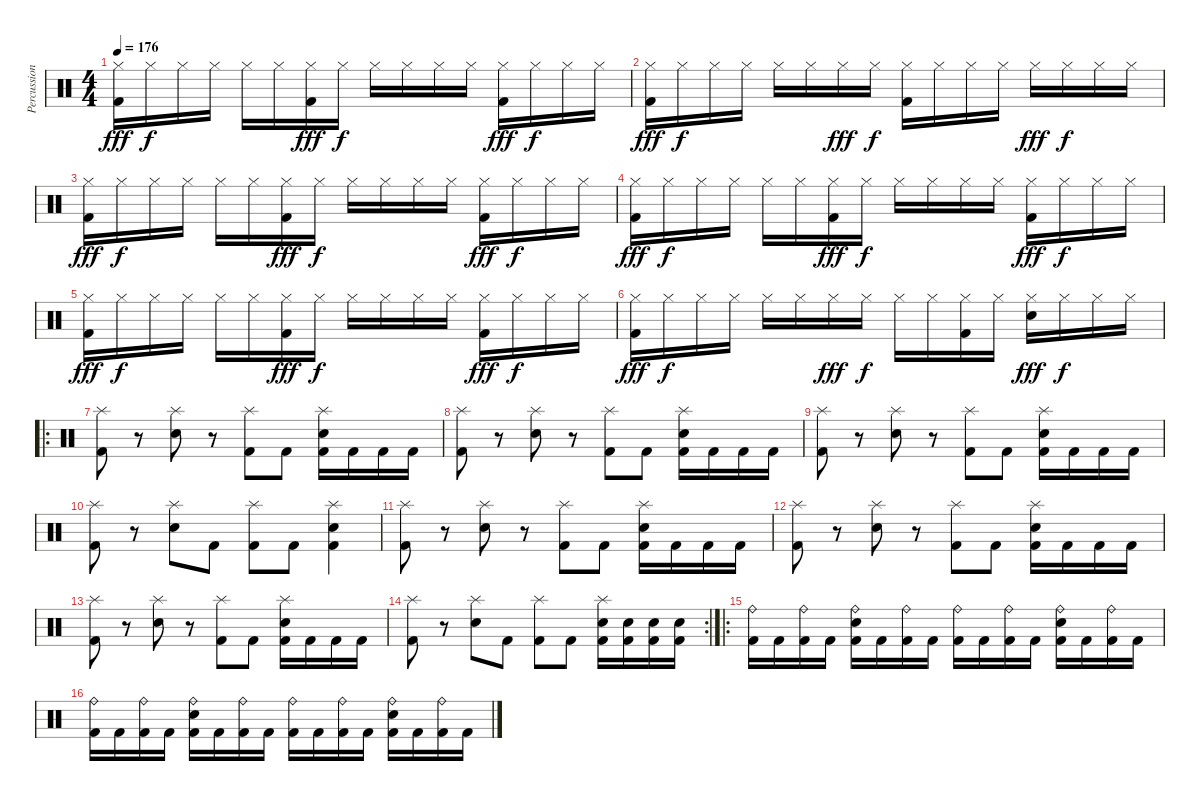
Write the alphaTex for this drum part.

\track ("Percussion" "Percussion") {instrument percussion}
\staff {score}
\articulation defaults
\ts (4 4)
\tempo 176
\clef neutral
\ks c
("Hi-Hat (closed)" "Kick (hit) 2").16{dy fff} "Hi-Hat (closed)".16{dy f} "Hi-Hat (closed)".16 "Hi-Hat (closed)".16 "Hi-Hat (closed)".16 "Hi-Hat (closed)".16 ("Hi-Hat (closed)" "Kick (hit) 2").16{dy fff} "Hi-Hat (closed)".16{dy f} "Hi-Hat (closed)".16 "Hi-Hat (closed)".16 "Hi-Hat (closed)".16 "Hi-Hat (closed)".16 ("Hi-Hat (closed)" "Kick (hit) 2").16{dy fff} "Hi-Hat (closed)".16{dy f} "Hi-Hat (closed)".16 "Hi-Hat (closed)".16 |
("Hi-Hat (closed)" "Kick (hit) 2").16{dy fff} "Hi-Hat (closed)".16{dy f} "Hi-Hat (closed)".16 "Hi-Hat (closed)".16 "Hi-Hat (closed)".16 "Hi-Hat (closed)".16 "Hi-Hat (closed)".16{dy fff} "Hi-Hat (closed)".16{dy f} ("Hi-Hat (closed)" "Kick (hit) 2").16 "Hi-Hat (closed)".16 "Hi-Hat (closed)".16 "Hi-Hat (closed)".16 "Hi-Hat (closed)".16{dy fff} "Hi-Hat (closed)".16{dy f} "Hi-Hat (closed)".16 "Hi-Hat (closed)".16 |
("Hi-Hat (closed)" "Kick (hit) 2").16{dy fff} "Hi-Hat (closed)".16{dy f} "Hi-Hat (closed)".16 "Hi-Hat (closed)".16 "Hi-Hat (closed)".16 "Hi-Hat (closed)".16 ("Hi-Hat (closed)" "Kick (hit) 2").16{dy fff} "Hi-Hat (closed)".16{dy f} "Hi-Hat (closed)".16 "Hi-Hat (closed)".16 "Hi-Hat (closed)".16 "Hi-Hat (closed)".16 ("Hi-Hat (closed)" "Kick (hit) 2").16{dy fff} "Hi-Hat (closed)".16{dy f} "Hi-Hat (closed)".16 "Hi-Hat (closed)".16 |
("Hi-Hat (closed)" "Kick (hit) 2").16{dy fff} "Hi-Hat (closed)".16{dy f} "Hi-Hat (closed)".16 "Hi-Hat (closed)".16 "Hi-Hat (closed)".16 "Hi-Hat (closed)".16 ("Hi-Hat (closed)" "Kick (hit) 2").16{dy fff} "Hi-Hat (closed)".16{dy f} "Hi-Hat (closed)".16 "Hi-Hat (closed)".16 "Hi-Hat (closed)".16 "Hi-Hat (closed)".16 ("Hi-Hat (closed)" "Kick (hit) 2").16{dy fff} "Hi-Hat (closed)".16{dy f} "Hi-Hat (closed)".16 "Hi-Hat (closed)".16 |
("Hi-Hat (closed)" "Kick (hit) 2").16{dy fff} "Hi-Hat (closed)".16{dy f} "Hi-Hat (closed)".16 "Hi-Hat (closed)".16 "Hi-Hat (closed)".16 "Hi-Hat (closed)".16 ("Hi-Hat (closed)" "Kick (hit) 2").16{dy fff} "Hi-Hat (closed)".16{dy f} "Hi-Hat (closed)".16 "Hi-Hat (closed)".16 "Hi-Hat (closed)".16 "Hi-Hat (closed)".16 ("Hi-Hat (closed)" "Kick (hit) 2").16{dy fff} "Hi-Hat (closed)".16{dy f} "Hi-Hat (closed)".16 "Hi-Hat (closed)".16 |
("Hi-Hat (closed)" "Kick (hit) 2").16{dy fff} "Hi-Hat (closed)".16{dy f} "Hi-Hat (closed)".16 "Hi-Hat (closed)".16 "Hi-Hat (closed)".16 "Hi-Hat (closed)".16 "Hi-Hat (closed)".16{dy fff} "Hi-Hat (closed)".16{dy f} "Hi-Hat (closed)".16 "Hi-Hat (closed)".16 ("Hi-Hat (closed)" "Kick (hit) 2").16 "Hi-Hat (closed)".16 ("Hi-Hat (closed)" "Snare (hit) 2").16{dy fff} "Hi-Hat (closed)".16{dy f} "Hi-Hat (closed)".16 "Hi-Hat (closed)".16 |
\ro
("Splash (hit)" "Kick (hit) 2").8 r.8 ("Splash (hit)" "Snare (hit) 2").8 r.8 ("Splash (hit)" "Kick (hit) 2").8 "Kick (hit) 2".8 ("Splash (hit)" "Snare (hit) 2" "Kick (hit) 2").16 "Kick (hit) 2".16 "Kick (hit) 2".16 "Kick (hit) 2".16 |
("Splash (hit)" "Kick (hit) 2").8 r.8 ("Splash (hit)" "Snare (hit) 2").8 r.8 ("Splash (hit)" "Kick (hit) 2").8 "Kick (hit) 2".8 ("Splash (hit)" "Snare (hit) 2" "Kick (hit) 2").16 "Kick (hit) 2".16 "Kick (hit) 2".16 "Kick (hit) 2".16 |
("Splash (hit)" "Kick (hit) 2").8 r.8 ("Splash (hit)" "Snare (hit) 2").8 r.8 ("Splash (hit)" "Kick (hit) 2").8 "Kick (hit) 2".8 ("Splash (hit)" "Snare (hit) 2" "Kick (hit) 2").16 "Kick (hit) 2".16 "Kick (hit) 2".16 "Kick (hit) 2".16 |
("Splash (hit)" "Kick (hit) 2").8 r.8 ("Splash (hit)" "Snare (hit) 2").8 "Kick (hit) 2".8 ("Splash (hit)" "Kick (hit) 2").8 "Kick (hit) 2".8 ("Splash (hit)" "Snare (hit) 2" "Kick (hit) 2").4 |
("Splash (hit)" "Kick (hit) 2").8 r.8 ("Splash (hit)" "Snare (hit) 2").8 r.8 ("Splash (hit)" "Kick (hit) 2").8 "Kick (hit) 2".8 ("Splash (hit)" "Snare (hit) 2" "Kick (hit) 2").16 "Kick (hit) 2".16 "Kick (hit) 2".16 "Kick (hit) 2".16 |
("Splash (hit)" "Kick (hit) 2").8 r.8 ("Splash (hit)" "Snare (hit) 2").8 r.8 ("Splash (hit)" "Kick (hit) 2").8 "Kick (hit) 2".8 ("Splash (hit)" "Snare (hit) 2" "Kick (hit) 2").16 "Kick (hit) 2".16 "Kick (hit) 2".16 "Kick (hit) 2".16 |
("Splash (hit)" "Kick (hit) 2").8 r.8 ("Splash (hit)" "Snare (hit) 2").8 r.8 ("Splash (hit)" "Kick (hit) 2").8 "Kick (hit) 2".8 ("Splash (hit)" "Snare (hit) 2" "Kick (hit) 2").16 "Kick (hit) 2".16 "Kick (hit) 2".16 "Kick (hit) 2".16 |
\rc 2
("Splash (hit)" "Kick (hit) 2").8 r.8 ("Splash (hit)" "Snare (hit) 2").8 "Kick (hit) 2".8 ("Splash (hit)" "Kick (hit) 2").8 "Kick (hit) 2".8 ("Splash (hit)" "Snare (hit) 2" "Kick (hit) 2").16 ("Snare (hit) 2" "Kick (hit) 2").16 ("Snare (hit) 2" "Kick (hit) 2").16 ("Snare (hit) 2" "Kick (hit) 2").16 |
\ro
("Ride (bell)" "Kick (hit) 2").16 "Kick (hit) 2".16 ("Ride (bell)" "Kick (hit) 2").16 "Kick (hit) 2".16 ("Ride (bell)" "Snare (hit) 2" "Kick (hit) 2").16 "Kick (hit) 2".16 ("Ride (bell)" "Kick (hit) 2").16 "Kick (hit) 2".16 ("Ride (bell)" "Kick (hit) 2").16 "Kick (hit) 2".16 ("Ride (bell)" "Kick (hit) 2").16 "Kick (hit) 2".16 ("Ride (bell)" "Snare (hit) 2" "Kick (hit) 2").16 "Kick (hit) 2".16 ("Ride (bell)" "Kick (hit) 2").16 "Kick (hit) 2".16 |
("Ride (bell)" "Kick (hit) 2").16 "Kick (hit) 2".16 ("Ride (bell)" "Kick (hit) 2").16 "Kick (hit) 2".16 ("Ride (bell)" "Snare (hit) 2" "Kick (hit) 2").16 "Kick (hit) 2".16 ("Ride (bell)" "Kick (hit) 2").16 "Kick (hit) 2".16 ("Ride (bell)" "Kick (hit) 2").16 "Kick (hit) 2".16 ("Ride (bell)" "Kick (hit) 2").16 "Kick (hit) 2".16 ("Ride (bell)" "Snare (hit) 2" "Kick (hit) 2").16 "Kick (hit) 2".16 ("Ride (bell)" "Kick (hit) 2").16 "Kick (hit) 2".16
